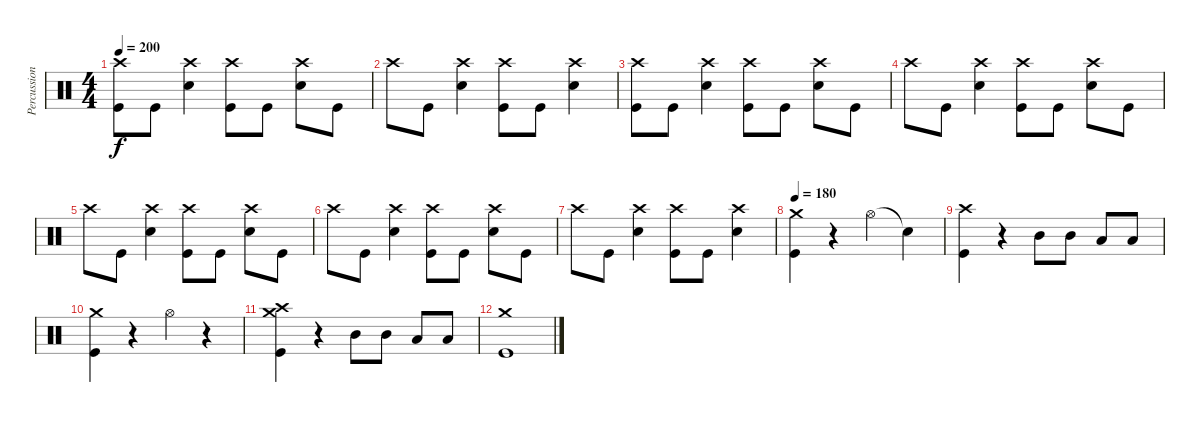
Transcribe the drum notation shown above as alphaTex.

\track ("Percussion" "Percussion") {instrument percussion}
\staff {score}
\articulation defaults
\ts (4 4)
\tempo 200
\clef neutral
\ks c
("Crash high (hit)" "Kick (hit)").8{dy f} "Kick (hit)".8 ("Crash high (hit)" "Snare (hit) 2").4 ("Crash high (hit)" "Kick (hit)").8 "Kick (hit)".8 ("Crash high (hit)" "Snare (hit) 2").8 "Kick (hit)".8 |
"Crash high (hit)".8 "Kick (hit)".8 ("Crash high (hit)" "Snare (hit) 2").4 ("Crash high (hit)" "Kick (hit)").8 "Kick (hit)".8 ("Crash high (hit)" "Snare (hit) 2").4 |
("Crash high (hit)" "Kick (hit)").8 "Kick (hit)".8 ("Crash high (hit)" "Snare (hit) 2").4 ("Crash high (hit)" "Kick (hit)").8 "Kick (hit)".8 ("Crash high (hit)" "Snare (hit) 2").8 "Kick (hit)".8 |
"Crash high (hit)".8 "Kick (hit)".8 ("Crash high (hit)" "Snare (hit) 2").4 ("Crash high (hit)" "Kick (hit)").8 "Kick (hit)".8 ("Crash high (hit)" "Snare (hit) 2").8 "Kick (hit)".8 |
"Crash high (hit)".8 "Kick (hit)".8 ("Crash high (hit)" "Snare (hit) 2").4 ("Crash high (hit)" "Kick (hit)").8 "Kick (hit)".8 ("Crash high (hit)" "Snare (hit) 2").8 "Kick (hit)".8 |
"Crash high (hit)".8 "Kick (hit)".8 ("Crash high (hit)" "Snare (hit) 2").4 ("Crash high (hit)" "Kick (hit)").8 "Kick (hit)".8 ("Crash high (hit)" "Snare (hit) 2").8 "Kick (hit)".8 |
"Crash high (hit)".8 "Kick (hit)".8 ("Crash high (hit)" "Snare (hit) 2").4 ("Crash high (hit)" "Kick (hit)").8 "Kick (hit)".8 ("Crash high (hit)" "Snare (hit) 2").4 |
\tempo 180
("Crash medium (hit)" "Kick (hit)").4 r.4 "Hi-Hat (open)".4 "Snare (hit)"{t}.4 |
("Crash high (hit)" "Kick (hit)").4 r.4 "Mid Tom (hit)".8 "Mid Tom (hit)".8 "Low Tom (hit)".8 "Low Tom (hit)".8 |
("Crash medium (hit)" "Kick (hit)").4 r.4 "Hi-Hat (open)".4 r.4 |
("Crash high (hit)" "Crash medium (hit)" "Kick (hit)").4 r.4 "Mid Tom (hit)".8 "Mid Tom (hit)".8 "Low Tom (hit)".8 "Low Tom (hit)".8 |
("Crash medium (hit)" "Kick (hit)").1
